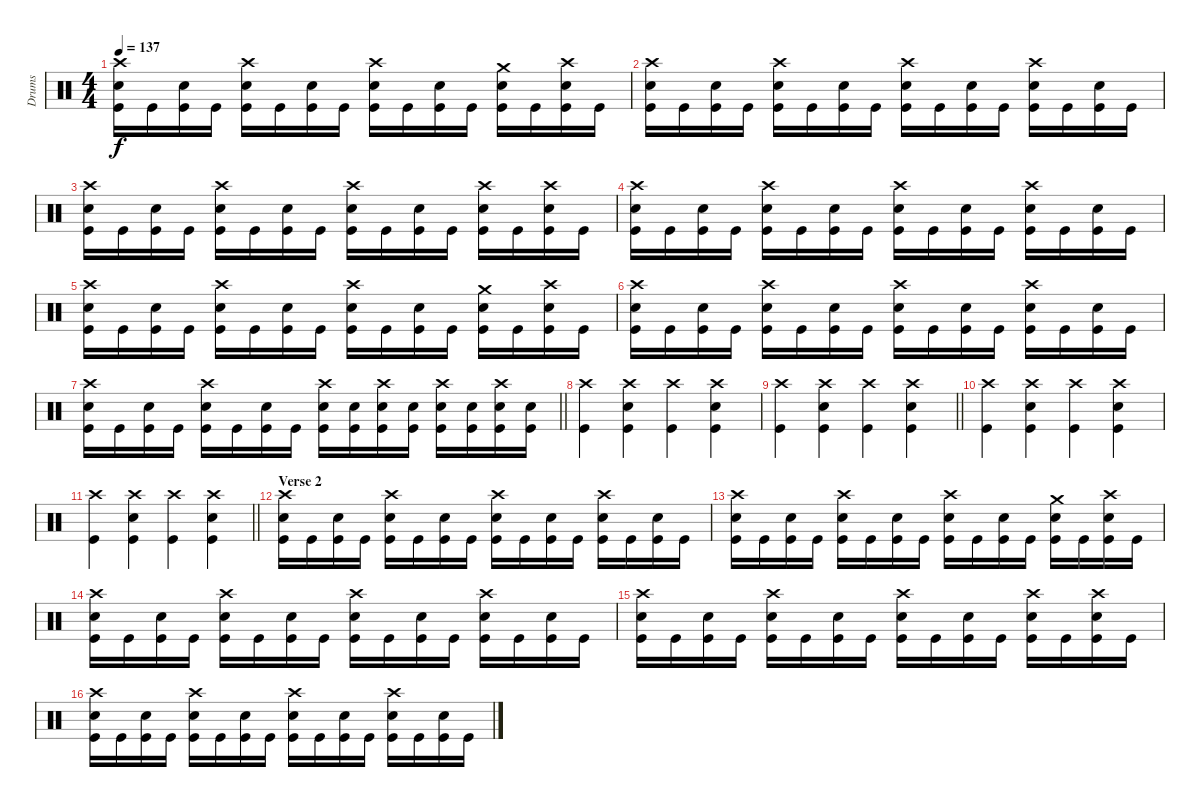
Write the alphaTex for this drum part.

\track ("Drums" "Drums") {instrument percussion}
\staff {score}
\articulation defaults
\ts (4 4)
\tempo 137
\clef neutral
\ks c
("Crash high (hit)" "Snare (hit) 2" "Kick (hit)").16{dy f} "Kick (hit)".16 ("Snare (hit) 2" "Kick (hit)").16 "Kick (hit)".16 ("Crash high (hit)" "Snare (hit) 2" "Kick (hit)").16 "Kick (hit)".16 ("Snare (hit) 2" "Kick (hit)").16 "Kick (hit)".16 ("Crash high (hit)" "Snare (hit) 2" "Kick (hit)").16 "Kick (hit)".16 ("Snare (hit) 2" "Kick (hit)").16 "Kick (hit)".16 ("Crash medium (hit)" "Snare (hit) 2" "Kick (hit)").16 "Kick (hit)".16 ("Crash high (hit)" "Snare (hit) 2" "Kick (hit)").16 "Kick (hit)".16 |
("Crash high (hit)" "Snare (hit) 2" "Kick (hit)").16 "Kick (hit)".16 ("Snare (hit) 2" "Kick (hit)").16 "Kick (hit)".16 ("Crash high (hit)" "Snare (hit) 2" "Kick (hit)").16 "Kick (hit)".16 ("Snare (hit) 2" "Kick (hit)").16 "Kick (hit)".16 ("Crash high (hit)" "Snare (hit) 2" "Kick (hit)").16 "Kick (hit)".16 ("Snare (hit) 2" "Kick (hit)").16 "Kick (hit)".16 ("Crash high (hit)" "Snare (hit) 2" "Kick (hit)").16 "Kick (hit)".16 ("Snare (hit) 2" "Kick (hit)").16 "Kick (hit)".16 |
("Crash high (hit)" "Snare (hit) 2" "Kick (hit)").16 "Kick (hit)".16 ("Snare (hit) 2" "Kick (hit)").16 "Kick (hit)".16 ("Crash high (hit)" "Snare (hit) 2" "Kick (hit)").16 "Kick (hit)".16 ("Snare (hit) 2" "Kick (hit)").16 "Kick (hit)".16 ("Crash high (hit)" "Snare (hit) 2" "Kick (hit)").16 "Kick (hit)".16 ("Snare (hit) 2" "Kick (hit)").16 "Kick (hit)".16 ("Crash high (hit)" "Snare (hit) 2" "Kick (hit)").16 "Kick (hit)".16 ("Crash high (hit)" "Snare (hit) 2" "Kick (hit)").16 "Kick (hit)".16 |
("Crash high (hit)" "Snare (hit) 2" "Kick (hit)").16 "Kick (hit)".16 ("Snare (hit) 2" "Kick (hit)").16 "Kick (hit)".16 ("Crash high (hit)" "Snare (hit) 2" "Kick (hit)").16 "Kick (hit)".16 ("Snare (hit) 2" "Kick (hit)").16 "Kick (hit)".16 ("Crash high (hit)" "Snare (hit) 2" "Kick (hit)").16 "Kick (hit)".16 ("Snare (hit) 2" "Kick (hit)").16 "Kick (hit)".16 ("Crash high (hit)" "Snare (hit) 2" "Kick (hit)").16 "Kick (hit)".16 ("Snare (hit) 2" "Kick (hit)").16 "Kick (hit)".16 |
("Crash high (hit)" "Snare (hit) 2" "Kick (hit)").16 "Kick (hit)".16 ("Snare (hit) 2" "Kick (hit)").16 "Kick (hit)".16 ("Crash high (hit)" "Snare (hit) 2" "Kick (hit)").16 "Kick (hit)".16 ("Snare (hit) 2" "Kick (hit)").16 "Kick (hit)".16 ("Crash high (hit)" "Snare (hit) 2" "Kick (hit)").16 "Kick (hit)".16 ("Snare (hit) 2" "Kick (hit)").16 "Kick (hit)".16 ("Crash medium (hit)" "Snare (hit) 2" "Kick (hit)").16 "Kick (hit)".16 ("Crash high (hit)" "Snare (hit) 2" "Kick (hit)").16 "Kick (hit)".16 |
("Crash high (hit)" "Snare (hit) 2" "Kick (hit)").16 "Kick (hit)".16 ("Snare (hit) 2" "Kick (hit)").16 "Kick (hit)".16 ("Crash high (hit)" "Snare (hit) 2" "Kick (hit)").16 "Kick (hit)".16 ("Snare (hit) 2" "Kick (hit)").16 "Kick (hit)".16 ("Crash high (hit)" "Snare (hit) 2" "Kick (hit)").16 "Kick (hit)".16 ("Snare (hit) 2" "Kick (hit)").16 "Kick (hit)".16 ("Crash high (hit)" "Snare (hit) 2" "Kick (hit)").16 "Kick (hit)".16 ("Snare (hit) 2" "Kick (hit)").16 "Kick (hit)".16 |
\barLineRight lightlight
("Crash high (hit)" "Snare (hit) 2" "Kick (hit)").16 "Kick (hit)".16 ("Snare (hit) 2" "Kick (hit)").16 "Kick (hit)".16 ("Crash high (hit)" "Snare (hit) 2" "Kick (hit)").16 "Kick (hit)".16 ("Snare (hit) 2" "Kick (hit)").16 "Kick (hit)".16 ("Crash high (hit)" "Snare (hit) 2" "Kick (hit)").16 ("Snare (hit) 2" "Kick (hit)").16 ("Crash high (hit)" "Snare (hit) 2" "Kick (hit)").16 ("Snare (hit) 2" "Kick (hit)").16 ("Crash high (hit)" "Snare (hit) 2" "Kick (hit)").16 ("Snare (hit) 2" "Kick (hit)").16 ("Crash high (hit)" "Snare (hit) 2" "Kick (hit)").16 ("Snare (hit) 2" "Kick (hit)").16 |
("Crash high (hit)" "Kick (hit)").4 ("Crash high (hit)" "Snare (hit) 2" "Kick (hit)").4 ("Crash high (hit)" "Kick (hit)").4 ("Crash high (hit)" "Snare (hit) 2" "Kick (hit)").4 |
\barLineRight lightlight
("Crash high (hit)" "Kick (hit)").4 ("Crash high (hit)" "Snare (hit) 2" "Kick (hit)").4 ("Crash high (hit)" "Kick (hit)").4 ("Crash high (hit)" "Snare (hit) 2" "Kick (hit)").4 |
("Crash high (hit)" "Kick (hit)").4 ("Crash high (hit)" "Snare (hit) 2" "Kick (hit)").4 ("Crash high (hit)" "Kick (hit)").4 ("Crash high (hit)" "Snare (hit) 2" "Kick (hit)").4 |
\barLineRight lightlight
("Crash high (hit)" "Kick (hit)").4 ("Crash high (hit)" "Snare (hit) 2" "Kick (hit)").4 ("Crash high (hit)" "Kick (hit)").4 ("Crash high (hit)" "Snare (hit) 2" "Kick (hit)").4 |
\section ("" "Verse 2")
("Crash high (hit)" "Snare (hit) 2" "Kick (hit)").16 "Kick (hit)".16 ("Snare (hit) 2" "Kick (hit)").16 "Kick (hit)".16 ("Crash high (hit)" "Snare (hit) 2" "Kick (hit)").16 "Kick (hit)".16 ("Snare (hit) 2" "Kick (hit)").16 "Kick (hit)".16 ("Crash high (hit)" "Snare (hit) 2" "Kick (hit)").16 "Kick (hit)".16 ("Snare (hit) 2" "Kick (hit)").16 "Kick (hit)".16 ("Crash high (hit)" "Snare (hit) 2" "Kick (hit)").16 "Kick (hit)".16 ("Snare (hit) 2" "Kick (hit)").16 "Kick (hit)".16 |
("Crash high (hit)" "Snare (hit) 2" "Kick (hit)").16 "Kick (hit)".16 ("Snare (hit) 2" "Kick (hit)").16 "Kick (hit)".16 ("Crash high (hit)" "Snare (hit) 2" "Kick (hit)").16 "Kick (hit)".16 ("Snare (hit) 2" "Kick (hit)").16 "Kick (hit)".16 ("Crash high (hit)" "Snare (hit) 2" "Kick (hit)").16 "Kick (hit)".16 ("Snare (hit) 2" "Kick (hit)").16 "Kick (hit)".16 ("Crash medium (hit)" "Snare (hit) 2" "Kick (hit)").16 "Kick (hit)".16 ("Crash high (hit)" "Snare (hit) 2" "Kick (hit)").16 "Kick (hit)".16 |
("Crash high (hit)" "Snare (hit) 2" "Kick (hit)").16 "Kick (hit)".16 ("Snare (hit) 2" "Kick (hit)").16 "Kick (hit)".16 ("Crash high (hit)" "Snare (hit) 2" "Kick (hit)").16 "Kick (hit)".16 ("Snare (hit) 2" "Kick (hit)").16 "Kick (hit)".16 ("Crash high (hit)" "Snare (hit) 2" "Kick (hit)").16 "Kick (hit)".16 ("Snare (hit) 2" "Kick (hit)").16 "Kick (hit)".16 ("Crash high (hit)" "Snare (hit) 2" "Kick (hit)").16 "Kick (hit)".16 ("Snare (hit) 2" "Kick (hit)").16 "Kick (hit)".16 |
("Crash high (hit)" "Snare (hit) 2" "Kick (hit)").16 "Kick (hit)".16 ("Snare (hit) 2" "Kick (hit)").16 "Kick (hit)".16 ("Crash high (hit)" "Snare (hit) 2" "Kick (hit)").16 "Kick (hit)".16 ("Snare (hit) 2" "Kick (hit)").16 "Kick (hit)".16 ("Crash high (hit)" "Snare (hit) 2" "Kick (hit)").16 "Kick (hit)".16 ("Snare (hit) 2" "Kick (hit)").16 "Kick (hit)".16 ("Crash high (hit)" "Snare (hit) 2" "Kick (hit)").16 "Kick (hit)".16 ("Crash high (hit)" "Snare (hit) 2" "Kick (hit)").16 "Kick (hit)".16 |
("Crash high (hit)" "Snare (hit) 2" "Kick (hit)").16 "Kick (hit)".16 ("Snare (hit) 2" "Kick (hit)").16 "Kick (hit)".16 ("Crash high (hit)" "Snare (hit) 2" "Kick (hit)").16 "Kick (hit)".16 ("Snare (hit) 2" "Kick (hit)").16 "Kick (hit)".16 ("Crash high (hit)" "Snare (hit) 2" "Kick (hit)").16 "Kick (hit)".16 ("Snare (hit) 2" "Kick (hit)").16 "Kick (hit)".16 ("Crash high (hit)" "Snare (hit) 2" "Kick (hit)").16 "Kick (hit)".16 ("Snare (hit) 2" "Kick (hit)").16 "Kick (hit)".16
